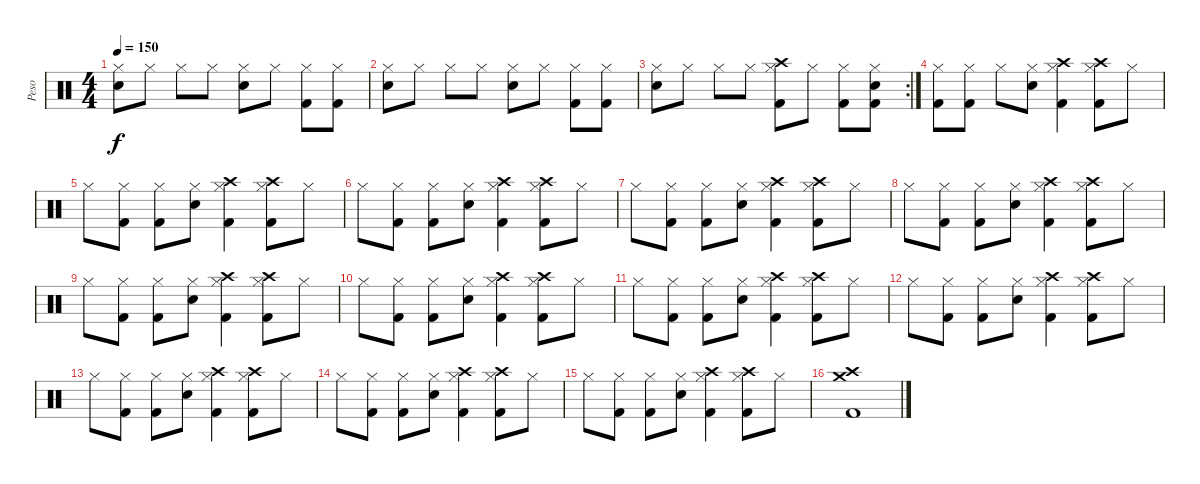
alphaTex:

\track ("Peso" "Peso") {instrument percussion}
\staff {score}
\articulation defaults
\ts (4 4)
\tempo 150
\clef neutral
\ks c
("Hi-Hat (closed)" "Snare (hit) 2").8{dy f} "Hi-Hat (closed)".8 "Hi-Hat (closed)".8 "Hi-Hat (closed)".8 ("Hi-Hat (closed)" "Snare (hit) 2").8 "Hi-Hat (closed)".8 ("Hi-Hat (closed)" "Kick (hit) 2").8 ("Hi-Hat (closed)" "Kick (hit) 2").8 |
("Hi-Hat (closed)" "Snare (hit) 2").8 "Hi-Hat (closed)".8 "Hi-Hat (closed)".8 "Hi-Hat (closed)".8 ("Hi-Hat (closed)" "Snare (hit) 2").8 "Hi-Hat (closed)".8 ("Hi-Hat (closed)" "Kick (hit) 2").8 ("Hi-Hat (closed)" "Kick (hit) 2").8 |
\rc 2
("Hi-Hat (closed)" "Snare (hit) 2").8 "Hi-Hat (closed)".8 "Hi-Hat (closed)".8 "Hi-Hat (closed)".8 ("Crash high (hit)" "Hi-Hat (closed)" "Kick (hit) 2").8 "Hi-Hat (closed)".8 ("Hi-Hat (closed)" "Kick (hit) 2").8 ("Hi-Hat (closed)" "Snare (hit) 2" "Kick (hit) 2").8 |
("Hi-Hat (closed)" "Kick (hit) 2").8 ("Hi-Hat (closed)" "Kick (hit) 2").8 "Hi-Hat (closed)".8 ("Hi-Hat (closed)" "Snare (hit) 2").8 ("Crash high (hit)" "Hi-Hat (closed)" "Kick (hit) 2").4 ("Crash high (hit)" "Hi-Hat (closed)" "Kick (hit) 2").8 "Hi-Hat (closed)".8 |
"Hi-Hat (closed)".8 ("Hi-Hat (closed)" "Kick (hit) 2").8 ("Hi-Hat (closed)" "Kick (hit) 2").8 ("Hi-Hat (closed)" "Snare (hit) 2").8 ("Crash high (hit)" "Hi-Hat (closed)" "Kick (hit) 2").4 ("Crash high (hit)" "Hi-Hat (closed)" "Kick (hit) 2").8 "Hi-Hat (closed)".8 |
"Hi-Hat (closed)".8 ("Hi-Hat (closed)" "Kick (hit) 2").8 ("Hi-Hat (closed)" "Kick (hit) 2").8 ("Hi-Hat (closed)" "Snare (hit) 2").8 ("Crash high (hit)" "Hi-Hat (closed)" "Kick (hit) 2").4 ("Crash high (hit)" "Hi-Hat (closed)" "Kick (hit) 2").8 "Hi-Hat (closed)".8 |
"Hi-Hat (closed)".8 ("Hi-Hat (closed)" "Kick (hit) 2").8 ("Hi-Hat (closed)" "Kick (hit) 2").8 ("Hi-Hat (closed)" "Snare (hit) 2").8 ("Crash high (hit)" "Hi-Hat (closed)" "Kick (hit) 2").4 ("Crash high (hit)" "Hi-Hat (closed)" "Kick (hit) 2").8 "Hi-Hat (closed)".8 |
"Hi-Hat (closed)".8 ("Hi-Hat (closed)" "Kick (hit) 2").8 ("Hi-Hat (closed)" "Kick (hit) 2").8 ("Hi-Hat (closed)" "Snare (hit) 2").8 ("Crash high (hit)" "Hi-Hat (closed)" "Kick (hit) 2").4 ("Crash high (hit)" "Hi-Hat (closed)" "Kick (hit) 2").8 "Hi-Hat (closed)".8 |
"Hi-Hat (closed)".8 ("Hi-Hat (closed)" "Kick (hit) 2").8 ("Hi-Hat (closed)" "Kick (hit) 2").8 ("Hi-Hat (closed)" "Snare (hit) 2").8 ("Crash high (hit)" "Hi-Hat (closed)" "Kick (hit) 2").4 ("Crash high (hit)" "Hi-Hat (closed)" "Kick (hit) 2").8 "Hi-Hat (closed)".8 |
"Hi-Hat (closed)".8 ("Hi-Hat (closed)" "Kick (hit) 2").8 ("Hi-Hat (closed)" "Kick (hit) 2").8 ("Hi-Hat (closed)" "Snare (hit) 2").8 ("Crash high (hit)" "Hi-Hat (closed)" "Kick (hit) 2").4 ("Crash high (hit)" "Hi-Hat (closed)" "Kick (hit) 2").8 "Hi-Hat (closed)".8 |
"Hi-Hat (closed)".8 ("Hi-Hat (closed)" "Kick (hit) 2").8 ("Hi-Hat (closed)" "Kick (hit) 2").8 ("Hi-Hat (closed)" "Snare (hit) 2").8 ("Crash high (hit)" "Hi-Hat (closed)" "Kick (hit) 2").4 ("Crash high (hit)" "Hi-Hat (closed)" "Kick (hit) 2").8 "Hi-Hat (closed)".8 |
"Hi-Hat (closed)".8 ("Hi-Hat (closed)" "Kick (hit) 2").8 ("Hi-Hat (closed)" "Kick (hit) 2").8 ("Hi-Hat (closed)" "Snare (hit) 2").8 ("Crash high (hit)" "Hi-Hat (closed)" "Kick (hit) 2").4 ("Crash high (hit)" "Hi-Hat (closed)" "Kick (hit) 2").8 "Hi-Hat (closed)".8 |
"Hi-Hat (closed)".8 ("Hi-Hat (closed)" "Kick (hit) 2").8 ("Hi-Hat (closed)" "Kick (hit) 2").8 ("Hi-Hat (closed)" "Snare (hit) 2").8 ("Crash high (hit)" "Hi-Hat (closed)" "Kick (hit) 2").4 ("Crash high (hit)" "Hi-Hat (closed)" "Kick (hit) 2").8 "Hi-Hat (closed)".8 |
"Hi-Hat (closed)".8 ("Hi-Hat (closed)" "Kick (hit) 2").8 ("Hi-Hat (closed)" "Kick (hit) 2").8 ("Hi-Hat (closed)" "Snare (hit) 2").8 ("Crash high (hit)" "Hi-Hat (closed)" "Kick (hit) 2").4 ("Crash high (hit)" "Hi-Hat (closed)" "Kick (hit) 2").8 "Hi-Hat (closed)".8 |
"Hi-Hat (closed)".8 ("Hi-Hat (closed)" "Kick (hit) 2").8 ("Hi-Hat (closed)" "Kick (hit) 2").8 ("Hi-Hat (closed)" "Snare (hit) 2").8 ("Crash high (hit)" "Hi-Hat (closed)" "Kick (hit) 2").4 ("Crash high (hit)" "Hi-Hat (closed)" "Kick (hit) 2").8 "Hi-Hat (closed)".8 |
("Crash high (hit)" "Crash medium (hit)" "Kick (hit) 2").1
